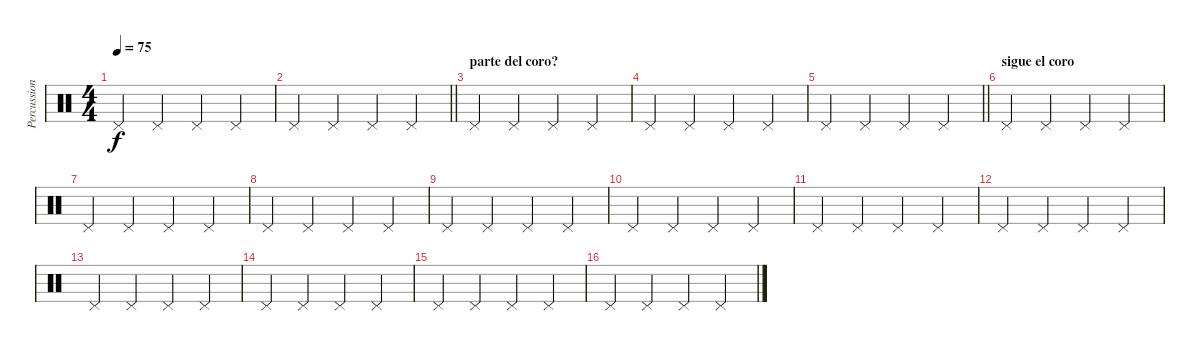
\track ("Percussion" "Percussion") {instrument percussion}
\staff {score}
\articulation defaults
\ts (4 4)
\tempo 75
\clef neutral
\ks c "Pedal Hi-Hat (hit)".4{dy f} "Pedal Hi-Hat (hit)".4 "Pedal Hi-Hat (hit)".4 "Pedal Hi-Hat (hit)".4
|
\barLineRight lightlight "Pedal Hi-Hat (hit)".4 "Pedal Hi-Hat (hit)".4 "Pedal Hi-Hat (hit)".4 "Pedal Hi-Hat (hit)".4
|
\section ("" "parte del coro?")
"Pedal Hi-Hat (hit)".4 "Pedal Hi-Hat (hit)".4 "Pedal Hi-Hat (hit)".4 "Pedal Hi-Hat (hit)".4 |
"Pedal Hi-Hat (hit)".4 "Pedal Hi-Hat (hit)".4 "Pedal Hi-Hat (hit)".4 "Pedal Hi-Hat (hit)".4 |
\barLineRight lightlight "Pedal Hi-Hat (hit)".4 "Pedal Hi-Hat (hit)".4 "Pedal Hi-Hat (hit)".4 "Pedal Hi-Hat (hit)".4
|
\section ("" "sigue el coro")
"Pedal Hi-Hat (hit)".4 "Pedal Hi-Hat (hit)".4 "Pedal Hi-Hat (hit)".4 "Pedal Hi-Hat (hit)".4 |
"Pedal Hi-Hat (hit)".4 "Pedal Hi-Hat (hit)".4 "Pedal Hi-Hat (hit)".4 "Pedal Hi-Hat (hit)".4 |
"Pedal Hi-Hat (hit)".4 "Pedal Hi-Hat (hit)".4 "Pedal Hi-Hat (hit)".4 "Pedal Hi-Hat (hit)".4 |
"Pedal Hi-Hat (hit)".4 "Pedal Hi-Hat (hit)".4 "Pedal Hi-Hat (hit)".4 "Pedal Hi-Hat (hit)".4 |
"Pedal Hi-Hat (hit)".4 "Pedal Hi-Hat (hit)".4 "Pedal Hi-Hat (hit)".4 "Pedal Hi-Hat (hit)".4 |
"Pedal Hi-Hat (hit)".4 "Pedal Hi-Hat (hit)".4 "Pedal Hi-Hat (hit)".4 "Pedal Hi-Hat (hit)".4 |
"Pedal Hi-Hat (hit)".4 "Pedal Hi-Hat (hit)".4 "Pedal Hi-Hat (hit)".4 "Pedal Hi-Hat (hit)".4 |
"Pedal Hi-Hat (hit)".4 "Pedal Hi-Hat (hit)".4 "Pedal Hi-Hat (hit)".4 "Pedal Hi-Hat (hit)".4 |
"Pedal Hi-Hat (hit)".4 "Pedal Hi-Hat (hit)".4 "Pedal Hi-Hat (hit)".4 "Pedal Hi-Hat (hit)".4 |
"Pedal Hi-Hat (hit)".4 "Pedal Hi-Hat (hit)".4 "Pedal Hi-Hat (hit)".4 "Pedal Hi-Hat (hit)".4 |
"Pedal Hi-Hat (hit)".4 "Pedal Hi-Hat (hit)".4 "Pedal Hi-Hat (hit)".4 "Pedal Hi-Hat (hit)".4
